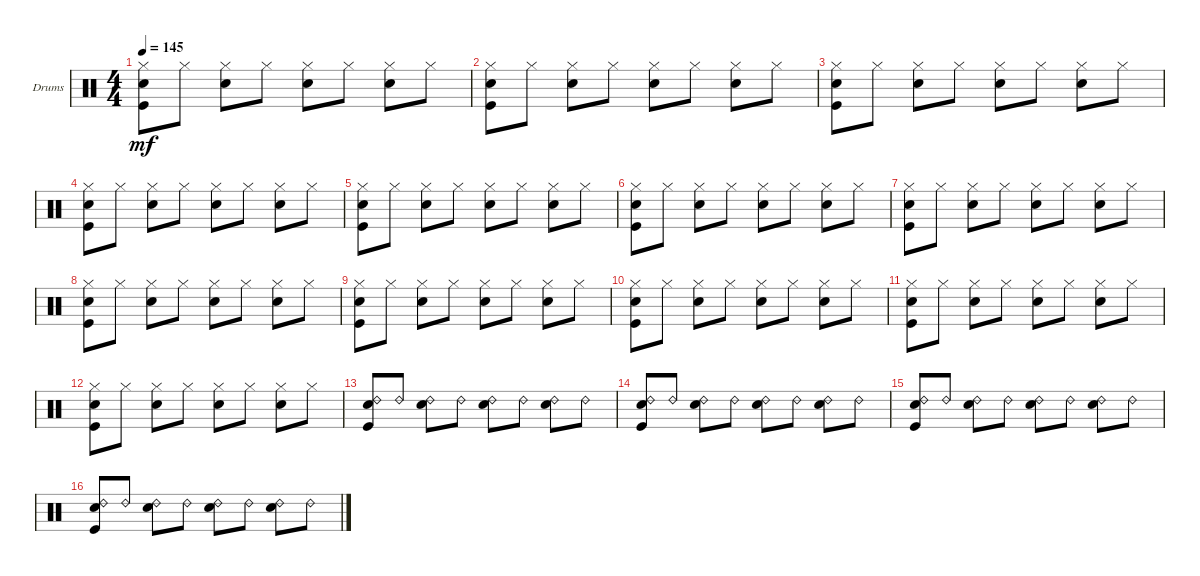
\bracketExtendMode groupsimilarinstruments
\firstSystemTrackNameOrientation horizontal
\otherSystemsTrackNameOrientation horizontal
\track ("Drumkit" "Drums") {instrument percussion}
\staff {score}
\articulation defaults
\ts (4 4)
\tempo 145
\clef neutral
\ks c
("Hi-Hat (closed)" "Kick (hit)" "Snare (hit) 2").8{dy mf} "Hi-Hat (closed)".8 ("Hi-Hat (closed)" "Snare (hit) 2").8 "Hi-Hat (closed)".8 ("Hi-Hat (closed)" "Snare (hit) 2").8 "Hi-Hat (closed)".8 ("Hi-Hat (closed)" "Snare (hit) 2").8 "Hi-Hat (closed)".8 |
("Hi-Hat (closed)" "Kick (hit)" "Snare (hit) 2").8 "Hi-Hat (closed)".8 ("Hi-Hat (closed)" "Snare (hit) 2").8 "Hi-Hat (closed)".8 ("Hi-Hat (closed)" "Snare (hit) 2").8 "Hi-Hat (closed)".8 ("Hi-Hat (closed)" "Snare (hit) 2").8 "Hi-Hat (closed)".8 |
("Hi-Hat (closed)" "Kick (hit)" "Snare (hit) 2").8 "Hi-Hat (closed)".8 ("Hi-Hat (closed)" "Snare (hit) 2").8 "Hi-Hat (closed)".8 ("Hi-Hat (closed)" "Snare (hit) 2").8 "Hi-Hat (closed)".8 ("Hi-Hat (closed)" "Snare (hit) 2").8 "Hi-Hat (closed)".8 |
("Hi-Hat (closed)" "Kick (hit)" "Snare (hit) 2").8 "Hi-Hat (closed)".8 ("Hi-Hat (closed)" "Snare (hit) 2").8 "Hi-Hat (closed)".8 ("Hi-Hat (closed)" "Snare (hit) 2").8 "Hi-Hat (closed)".8 ("Hi-Hat (closed)" "Snare (hit) 2").8 "Hi-Hat (closed)".8 |
("Hi-Hat (closed)" "Kick (hit)" "Snare (hit) 2").8 "Hi-Hat (closed)".8 ("Hi-Hat (closed)" "Snare (hit) 2").8 "Hi-Hat (closed)".8 ("Hi-Hat (closed)" "Snare (hit) 2").8 "Hi-Hat (closed)".8 ("Hi-Hat (closed)" "Snare (hit) 2").8 "Hi-Hat (closed)".8 |
("Hi-Hat (closed)" "Kick (hit)" "Snare (hit) 2").8 "Hi-Hat (closed)".8 ("Hi-Hat (closed)" "Snare (hit) 2").8 "Hi-Hat (closed)".8 ("Hi-Hat (closed)" "Snare (hit) 2").8 "Hi-Hat (closed)".8 ("Hi-Hat (closed)" "Snare (hit) 2").8 "Hi-Hat (closed)".8 |
("Hi-Hat (closed)" "Kick (hit)" "Snare (hit) 2").8 "Hi-Hat (closed)".8 ("Hi-Hat (closed)" "Snare (hit) 2").8 "Hi-Hat (closed)".8 ("Hi-Hat (closed)" "Snare (hit) 2").8 "Hi-Hat (closed)".8 ("Hi-Hat (closed)" "Snare (hit) 2").8 "Hi-Hat (closed)".8 |
("Hi-Hat (closed)" "Kick (hit)" "Snare (hit) 2").8 "Hi-Hat (closed)".8 ("Hi-Hat (closed)" "Snare (hit) 2").8 "Hi-Hat (closed)".8 ("Hi-Hat (closed)" "Snare (hit) 2").8 "Hi-Hat (closed)".8 ("Hi-Hat (closed)" "Snare (hit) 2").8 "Hi-Hat (closed)".8 |
("Hi-Hat (closed)" "Kick (hit)" "Snare (hit) 2").8 "Hi-Hat (closed)".8 ("Hi-Hat (closed)" "Snare (hit) 2").8 "Hi-Hat (closed)".8 ("Hi-Hat (closed)" "Snare (hit) 2").8 "Hi-Hat (closed)".8 ("Hi-Hat (closed)" "Snare (hit) 2").8 "Hi-Hat (closed)".8 |
("Hi-Hat (closed)" "Kick (hit)" "Snare (hit) 2").8 "Hi-Hat (closed)".8 ("Hi-Hat (closed)" "Snare (hit) 2").8 "Hi-Hat (closed)".8 ("Hi-Hat (closed)" "Snare (hit) 2").8 "Hi-Hat (closed)".8 ("Hi-Hat (closed)" "Snare (hit) 2").8 "Hi-Hat (closed)".8 |
("Hi-Hat (closed)" "Kick (hit)" "Snare (hit) 2").8 "Hi-Hat (closed)".8 ("Hi-Hat (closed)" "Snare (hit) 2").8 "Hi-Hat (closed)".8 ("Hi-Hat (closed)" "Snare (hit) 2").8 "Hi-Hat (closed)".8 ("Hi-Hat (closed)" "Snare (hit) 2").8 "Hi-Hat (closed)".8 |
("Hi-Hat (closed)" "Kick (hit)" "Snare (hit) 2").8 "Hi-Hat (closed)".8 ("Hi-Hat (closed)" "Snare (hit) 2").8 "Hi-Hat (closed)".8 ("Hi-Hat (closed)" "Snare (hit) 2").8 "Hi-Hat (closed)".8 ("Hi-Hat (closed)" "Snare (hit) 2").8 "Hi-Hat (closed)".8 |
("Kick (hit)" "Snare (hit) 2" "Ride (bell) 2").8 "Ride (bell) 2".8 ("Snare (hit) 2" "Ride (bell) 2").8 "Ride (bell) 2".8 ("Snare (hit) 2" "Ride (bell) 2").8 "Ride (bell) 2".8 ("Snare (hit) 2" "Ride (bell) 2").8 "Ride (bell) 2".8 |
("Kick (hit)" "Snare (hit) 2" "Ride (bell) 2").8 "Ride (bell) 2".8 ("Snare (hit) 2" "Ride (bell) 2").8 "Ride (bell) 2".8 ("Snare (hit) 2" "Ride (bell) 2").8 "Ride (bell) 2".8 ("Snare (hit) 2" "Ride (bell) 2").8 "Ride (bell) 2".8 |
("Kick (hit)" "Snare (hit) 2" "Ride (bell) 2").8 "Ride (bell) 2".8 ("Snare (hit) 2" "Ride (bell) 2").8 "Ride (bell) 2".8 ("Snare (hit) 2" "Ride (bell) 2").8 "Ride (bell) 2".8 ("Snare (hit) 2" "Ride (bell) 2").8 "Ride (bell) 2".8 |
("Kick (hit)" "Snare (hit) 2" "Ride (bell) 2").8 "Ride (bell) 2".8 ("Snare (hit) 2" "Ride (bell) 2").8 "Ride (bell) 2".8 ("Snare (hit) 2" "Ride (bell) 2").8 "Ride (bell) 2".8 ("Snare (hit) 2" "Ride (bell) 2").8 "Ride (bell) 2".8
